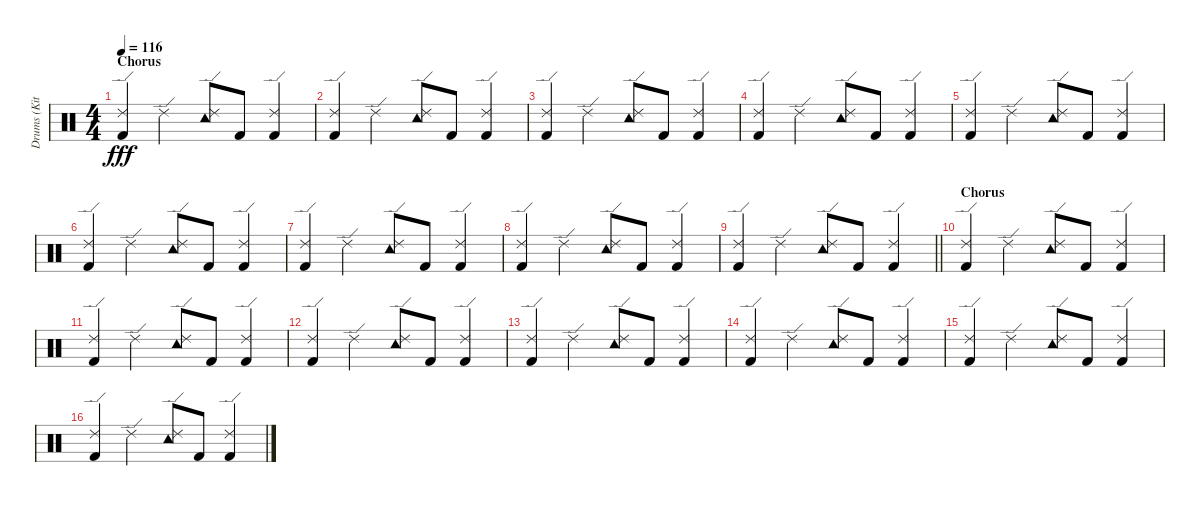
\track ("Drums (Kit)" "Drums (Kit") {instrument percussion}
\staff {score}
\articulation defaults
\ts (4 4)
\section ("" "Chorus")
\tempo 116
\clef neutral
\ks c
("Kick (hit) 2" "Ride (edge) 2").4{dy fff} "Ride (edge) 2".4 ("Ride (edge) 2" "Tambourine (hit)").8 "Kick (hit) 2".8 ("Ride (edge) 2" "Kick (hit) 2").4 |
("Ride (edge) 2" "Kick (hit) 2").4 "Ride (edge) 2".4 ("Ride (edge) 2" "Tambourine (hit)").8 "Kick (hit) 2".8 ("Ride (edge) 2" "Kick (hit) 2").4 |
("Kick (hit) 2" "Ride (edge) 2").4 "Ride (edge) 2".4 ("Ride (edge) 2" "Tambourine (hit)").8 "Kick (hit) 2".8 ("Ride (edge) 2" "Kick (hit) 2").4 |
("Ride (edge) 2" "Kick (hit) 2").4 "Ride (edge) 2".4 ("Ride (edge) 2" "Tambourine (hit)").8 "Kick (hit) 2".8 ("Ride (edge) 2" "Kick (hit) 2").4 |
("Kick (hit) 2" "Ride (edge) 2").4 "Ride (edge) 2".4 ("Ride (edge) 2" "Tambourine (hit)").8 "Kick (hit) 2".8 ("Ride (edge) 2" "Kick (hit) 2").4 |
("Ride (edge) 2" "Kick (hit) 2").4 "Ride (edge) 2".4 ("Ride (edge) 2" "Tambourine (hit)").8 "Kick (hit) 2".8 ("Ride (edge) 2" "Kick (hit) 2").4 |
("Kick (hit) 2" "Ride (edge) 2").4 "Ride (edge) 2".4 ("Ride (edge) 2" "Tambourine (hit)").8 "Kick (hit) 2".8 ("Ride (edge) 2" "Kick (hit) 2").4 |
("Ride (edge) 2" "Kick (hit) 2").4 "Ride (edge) 2".4 ("Ride (edge) 2" "Tambourine (hit)").8 "Kick (hit) 2".8 ("Ride (edge) 2" "Kick (hit) 2").4 |
\barLineRight lightlight
("Kick (hit) 2" "Ride (edge) 2").4 "Ride (edge) 2".4 ("Ride (edge) 2" "Tambourine (hit)").8 "Kick (hit) 2".8 ("Ride (edge) 2" "Kick (hit) 2").4 |
\section ("" "Chorus")
("Ride (edge) 2" "Kick (hit) 2").4 "Ride (edge) 2".4 ("Ride (edge) 2" "Tambourine (hit)").8 "Kick (hit) 2".8 ("Ride (edge) 2" "Kick (hit) 2").4 |
("Kick (hit) 2" "Ride (edge) 2").4 "Ride (edge) 2".4 ("Ride (edge) 2" "Tambourine (hit)").8 "Kick (hit) 2".8 ("Ride (edge) 2" "Kick (hit) 2").4 |
("Ride (edge) 2" "Kick (hit) 2").4 "Ride (edge) 2".4 ("Ride (edge) 2" "Tambourine (hit)").8 "Kick (hit) 2".8 ("Ride (edge) 2" "Kick (hit) 2").4 |
("Kick (hit) 2" "Ride (edge) 2").4 "Ride (edge) 2".4 ("Ride (edge) 2" "Tambourine (hit)").8 "Kick (hit) 2".8 ("Ride (edge) 2" "Kick (hit) 2").4 |
("Ride (edge) 2" "Kick (hit) 2").4 "Ride (edge) 2".4 ("Ride (edge) 2" "Tambourine (hit)").8 "Kick (hit) 2".8 ("Ride (edge) 2" "Kick (hit) 2").4 |
("Kick (hit) 2" "Ride (edge) 2").4 "Ride (edge) 2".4 ("Ride (edge) 2" "Tambourine (hit)").8 "Kick (hit) 2".8 ("Ride (edge) 2" "Kick (hit) 2").4 |
("Ride (edge) 2" "Kick (hit) 2").4 "Ride (edge) 2".4 ("Ride (edge) 2" "Tambourine (hit)").8 "Kick (hit) 2".8 ("Ride (edge) 2" "Kick (hit) 2").4
